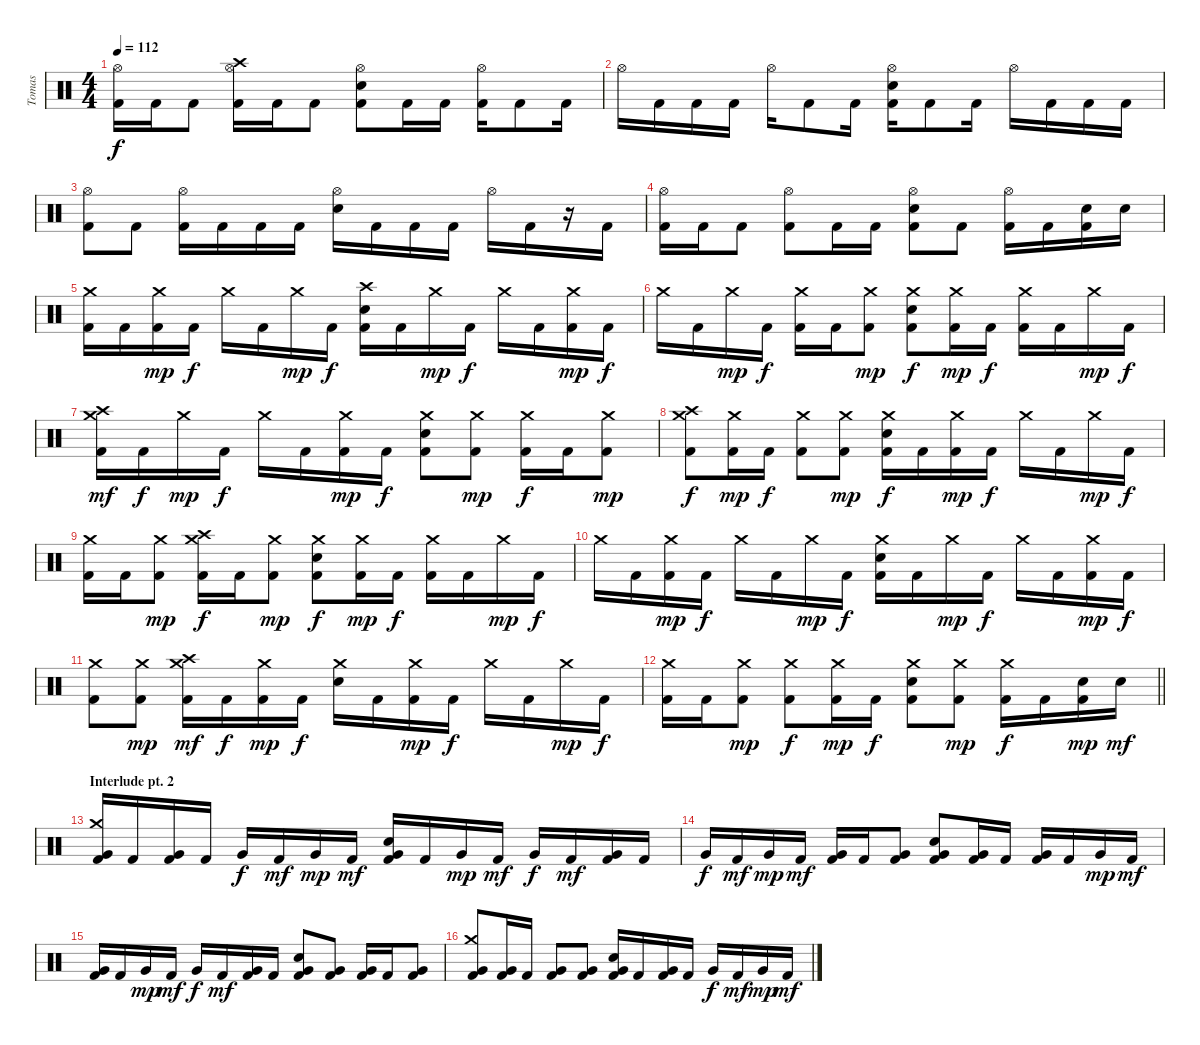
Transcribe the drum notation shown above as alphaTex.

\track ("Tomas" "Tomas") {instrument percussion}
\staff {score}
\articulation defaults
\ts (4 4)
\tempo 112
\clef neutral
\ks c
("Hi-Hat (open)" "Kick (hit) 2").16{dy f} "Kick (hit) 2".16 "Kick (hit) 2".8 ("Crash high (hit)" "Hi-Hat (open)" "Kick (hit) 2").16 "Kick (hit) 2".16 "Kick (hit) 2".8 ("Hi-Hat (open)" "Electric Snare (hit)" "Kick (hit) 2").8 "Kick (hit) 2".16 "Kick (hit) 2".16 ("Hi-Hat (open)" "Kick (hit) 2").16 "Kick (hit) 2".8 "Kick (hit) 2".16 |
"Hi-Hat (open)".16 "Kick (hit) 2".16 "Kick (hit) 2".16 "Kick (hit) 2".16 "Hi-Hat (open)".16 "Kick (hit) 2".8 "Kick (hit) 2".16 ("Hi-Hat (open)" "Electric Snare (hit)" "Kick (hit) 2").16 "Kick (hit) 2".8 "Kick (hit) 2".16 "Hi-Hat (open)".16 "Kick (hit) 2".16 "Kick (hit) 2".16 "Kick (hit) 2".16 |
("Hi-Hat (open)" "Kick (hit) 2").8 "Kick (hit) 2".8 ("Hi-Hat (open)" "Kick (hit) 2").16 "Kick (hit) 2".16 "Kick (hit) 2".16 "Kick (hit) 2".16 ("Hi-Hat (open)" "Electric Snare (hit)").16 "Kick (hit) 2".16 "Kick (hit) 2".16 "Kick (hit) 2".16 "Hi-Hat (open)".16 "Kick (hit) 2".16 r.16 "Kick (hit) 2".16 |
("Hi-Hat (open)" "Kick (hit) 2").16 "Kick (hit) 2".16 "Kick (hit) 2".8 ("Hi-Hat (open)" "Kick (hit) 2").8 "Kick (hit) 2".16 "Kick (hit) 2".16 ("Hi-Hat (open)" "Electric Snare (hit)" "Kick (hit) 2").8 "Kick (hit) 2".8 ("Hi-Hat (open)" "Kick (hit) 2").16 "Kick (hit) 2".16 ("Electric Snare (hit)" "Kick (hit) 2").16 "Electric Snare (hit)".16 |
("Crash medium (hit)" "Kick (hit) 2").16 "Kick (hit) 2".16 ("Crash medium (hit)" "Kick (hit) 2").16{dy mp} "Kick (hit) 2".16{dy f} "Crash medium (hit)".16 "Kick (hit) 2".16 "Crash medium (hit)".16{dy mp} "Kick (hit) 2".16{dy f} ("Crash high (hit)" "Electric Snare (hit)" "Kick (hit) 2").16 "Kick (hit) 2".16 "Crash medium (hit)".16{dy mp} "Kick (hit) 2".16{dy f} "Crash medium (hit)".16 "Kick (hit) 2".16 ("Crash medium (hit)" "Kick (hit) 2").16{dy mp} "Kick (hit) 2".16{dy f} |
"Crash medium (hit)".16 "Kick (hit) 2".16 "Crash medium (hit)".16{dy mp} "Kick (hit) 2".16{dy f} ("Crash medium (hit)" "Kick (hit) 2").16 "Kick (hit) 2".16 ("Crash medium (hit)" "Kick (hit) 2").8{dy mp} ("Crash medium (hit)" "Electric Snare (hit)" "Kick (hit) 2").8{dy f} ("Crash medium (hit)" "Kick (hit) 2").16{dy mp} "Kick (hit) 2".16{dy f} ("Crash medium (hit)" "Kick (hit) 2").16 "Kick (hit) 2".16 "Crash medium (hit)".16{dy mp} "Kick (hit) 2".16{dy f} |
("Crash medium (hit)" "Crash high (hit)" "Kick (hit) 2").16{dy mf} "Kick (hit) 2".16{dy f} "Crash medium (hit)".16{dy mp} "Kick (hit) 2".16{dy f} "Crash medium (hit)".16 "Kick (hit) 2".16 ("Crash medium (hit)" "Kick (hit) 2").16{dy mp} "Kick (hit) 2".16{dy f} ("Crash medium (hit)" "Electric Snare (hit)" "Kick (hit) 2").8 ("Crash medium (hit)" "Kick (hit) 2").8{dy mp} ("Crash medium (hit)" "Kick (hit) 2").16{dy f} "Kick (hit) 2".16 ("Crash medium (hit)" "Kick (hit) 2").8{dy mp} |
("Crash medium (hit)" "Crash high (hit)" "Kick (hit) 2").8{dy f} ("Crash medium (hit)" "Kick (hit) 2").16{dy mp} "Kick (hit) 2".16{dy f} ("Crash medium (hit)" "Kick (hit) 2").8 ("Crash medium (hit)" "Kick (hit) 2").8{dy mp} ("Crash medium (hit)" "Electric Snare (hit)" "Kick (hit) 2").16{dy f} "Kick (hit) 2".16 ("Crash medium (hit)" "Kick (hit) 2").16{dy mp} "Kick (hit) 2".16{dy f} "Crash medium (hit)".16 "Kick (hit) 2".16 "Crash medium (hit)".16{dy mp} "Kick (hit) 2".16{dy f} |
("Crash medium (hit)" "Kick (hit) 2").16 "Kick (hit) 2".16 ("Crash medium (hit)" "Kick (hit) 2").8{dy mp} ("Crash medium (hit)" "Crash high (hit)" "Kick (hit) 2").16{dy f} "Kick (hit) 2".16 ("Crash medium (hit)" "Kick (hit) 2").8{dy mp} ("Crash medium (hit)" "Electric Snare (hit)" "Kick (hit) 2").8{dy f} ("Crash medium (hit)" "Kick (hit) 2").16{dy mp} "Kick (hit) 2".16{dy f} ("Crash medium (hit)" "Kick (hit) 2").16 "Kick (hit) 2".16 "Crash medium (hit)".16{dy mp} "Kick (hit) 2".16{dy f} |
"Crash medium (hit)".16 "Kick (hit) 2".16 ("Crash medium (hit)" "Kick (hit) 2").16{dy mp} "Kick (hit) 2".16{dy f} "Crash medium (hit)".16 "Kick (hit) 2".16 "Crash medium (hit)".16{dy mp} "Kick (hit) 2".16{dy f} ("Crash medium (hit)" "Electric Snare (hit)" "Kick (hit) 2").16 "Kick (hit) 2".16 "Crash medium (hit)".16{dy mp} "Kick (hit) 2".16{dy f} "Crash medium (hit)".16 "Kick (hit) 2".16 ("Crash medium (hit)" "Kick (hit) 2").16{dy mp} "Kick (hit) 2".16{dy f} |
("Crash medium (hit)" "Kick (hit) 2").8 ("Crash medium (hit)" "Kick (hit) 2").8{dy mp} ("Crash medium (hit)" "Crash high (hit)" "Kick (hit) 2").16{dy mf} "Kick (hit) 2".16{dy f} ("Crash medium (hit)" "Kick (hit) 2").16{dy mp} "Kick (hit) 2".16{dy f} ("Crash medium (hit)" "Electric Snare (hit)").16 "Kick (hit) 2".16 ("Crash medium (hit)" "Kick (hit) 2").16{dy mp} "Kick (hit) 2".16{dy f} "Crash medium (hit)".16 "Kick (hit) 2".16 "Crash medium (hit)".16{dy mp} "Kick (hit) 2".16{dy f} |
\barLineRight lightlight
("Crash medium (hit)" "Kick (hit) 2").16 "Kick (hit) 2".16 ("Crash medium (hit)" "Kick (hit) 2").8{dy mp} ("Crash medium (hit)" "Kick (hit) 2").8{dy f} ("Crash medium (hit)" "Kick (hit) 2").16{dy mp} "Kick (hit) 2".16{dy f} ("Crash medium (hit)" "Electric Snare (hit)" "Kick (hit) 2").8 ("Crash medium (hit)" "Kick (hit) 2").8{dy mp} ("Crash medium (hit)" "Kick (hit) 2").16{dy f} "Kick (hit) 2".16 ("Electric Snare (hit)" "Kick (hit) 2").16{dy mp} "Electric Snare (hit)".16{dy mf} |
\section ("" "Interlude pt. 2")
("Crash medium (hit)" "Very Low Tom (hit)" "Kick (hit) 2").16 "Kick (hit) 2".16 ("Very Low Tom (hit)" "Kick (hit) 2").16 "Kick (hit) 2".16 "Very Low Tom (hit)".16{dy f} "Kick (hit) 2".16{dy mf} "Very Low Tom (hit)".16{dy mp} "Kick (hit) 2".16{dy mf} ("Electric Snare (hit)" "Very Low Tom (hit)" "Kick (hit) 2").16 "Kick (hit) 2".16 "Very Low Tom (hit)".16{dy mp} "Kick (hit) 2".16{dy mf} "Very Low Tom (hit)".16{dy f} "Kick (hit) 2".16{dy mf} ("Very Low Tom (hit)" "Kick (hit) 2").16 "Kick (hit) 2".16 |
"Very Low Tom (hit)".16{dy f} "Kick (hit) 2".16{dy mf} "Very Low Tom (hit)".16{dy mp} "Kick (hit) 2".16{dy mf} ("Very Low Tom (hit)" "Kick (hit) 2").16 "Kick (hit) 2".16 ("Very Low Tom (hit)" "Kick (hit) 2").8 ("Electric Snare (hit)" "Very Low Tom (hit)" "Kick (hit) 2").8 ("Very Low Tom (hit)" "Kick (hit) 2").16 "Kick (hit) 2".16 ("Very Low Tom (hit)" "Kick (hit) 2").16 "Kick (hit) 2".16 "Very Low Tom (hit)".16{dy mp} "Kick (hit) 2".16{dy mf} |
("Very Low Tom (hit)" "Kick (hit) 2").16 "Kick (hit) 2".16 "Very Low Tom (hit)".16{dy mp} "Kick (hit) 2".16{dy mf} "Very Low Tom (hit)".16{dy f} "Kick (hit) 2".16{dy mf} ("Very Low Tom (hit)" "Kick (hit) 2").16 "Kick (hit) 2".16 ("Electric Snare (hit)" "Very Low Tom (hit)" "Kick (hit) 2").8 ("Very Low Tom (hit)" "Kick (hit) 2").8 ("Very Low Tom (hit)" "Kick (hit) 2").16 "Kick (hit) 2".16 ("Very Low Tom (hit)" "Kick (hit) 2").8 |
("Crash medium (hit)" "Very Low Tom (hit)" "Kick (hit) 2").8 ("Very Low Tom (hit)" "Kick (hit) 2").16 "Kick (hit) 2".16 ("Very Low Tom (hit)" "Kick (hit) 2").8 ("Very Low Tom (hit)" "Kick (hit) 2").8 ("Electric Snare (hit)" "Very Low Tom (hit)" "Kick (hit) 2").16 "Kick (hit) 2".16 ("Very Low Tom (hit)" "Kick (hit) 2").16 "Kick (hit) 2".16 "Very Low Tom (hit)".16{dy f} "Kick (hit) 2".16{dy mf} "Very Low Tom (hit)".16{dy mp} "Kick (hit) 2".16{dy mf}
